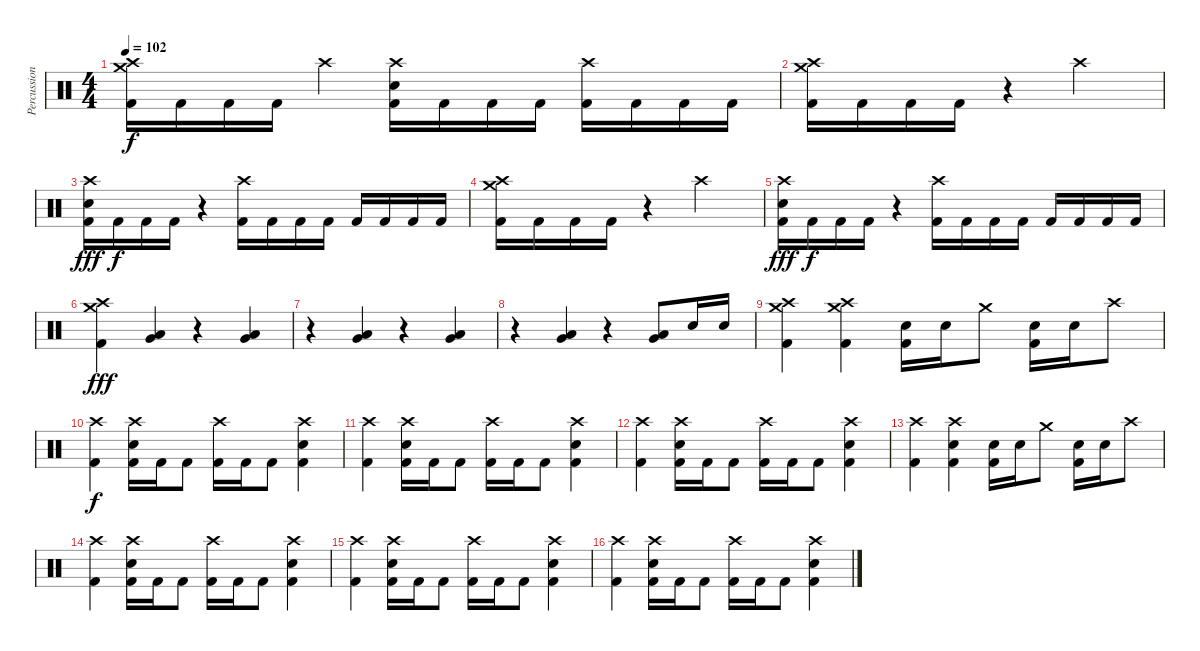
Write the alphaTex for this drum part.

\track ("Percussion" "Percussion") {instrument percussion}
\staff {score}
\articulation defaults
\ts (4 4)
\tempo 102
\clef neutral
\ks c
("Crash high (hit)" "Crash medium (hit)" "Kick (hit) 2").16{dy f} "Kick (hit) 2".16 "Kick (hit) 2".16 "Kick (hit) 2".16 "Crash high (hit)".4 ("Crash high (hit)" "Electric Snare (hit)" "Kick (hit) 2").16 "Kick (hit) 2".16 "Kick (hit) 2".16 "Kick (hit) 2".16 ("Crash high (hit)" "Kick (hit) 2").16 "Kick (hit) 2".16 "Kick (hit) 2".16 "Kick (hit) 2".16 |
("Crash high (hit)" "Crash medium (hit)" "Kick (hit) 2").16 "Kick (hit) 2".16 "Kick (hit) 2".16 "Kick (hit) 2".16 r.4 "Crash high (hit)".2 |
("Crash high (hit)" "Electric Snare (hit)" "Kick (hit) 2").16{dy fff} "Kick (hit) 2".16{dy f} "Kick (hit) 2".16 "Kick (hit) 2".16 r.4 ("Crash high (hit)" "Kick (hit) 2").16 "Kick (hit) 2".16 "Kick (hit) 2".16 "Kick (hit) 2".16 "Kick (hit) 2".16 "Kick (hit) 2".16 "Kick (hit) 2".16 "Kick (hit) 2".16 |
("Crash high (hit)" "Crash medium (hit)" "Kick (hit) 2").16 "Kick (hit) 2".16 "Kick (hit) 2".16 "Kick (hit) 2".16 r.4 "Crash high (hit)".2 |
("Crash high (hit)" "Electric Snare (hit)" "Kick (hit) 2").16{dy fff} "Kick (hit) 2".16{dy f} "Kick (hit) 2".16 "Kick (hit) 2".16 r.4 ("Crash high (hit)" "Kick (hit) 2").16 "Kick (hit) 2".16 "Kick (hit) 2".16 "Kick (hit) 2".16 "Kick (hit) 2".16 "Kick (hit) 2".16 "Kick (hit) 2".16 "Kick (hit) 2".16 |
("Crash medium (hit)" "Crash high (hit)" "Kick (hit) 2").4{dy fff} ("Low Tom (hit)" "Very Low Tom (hit)").4 r.4 ("Low Tom (hit)" "Very Low Tom (hit)").4 |
r.4 ("Low Tom (hit)" "Very Low Tom (hit)").4 r.4 ("Low Tom (hit)" "Very Low Tom (hit)").4 |
r.4 ("Low Tom (hit)" "Very Low Tom (hit)").4 r.4 ("Low Tom (hit)" "Very Low Tom (hit)").8 "Electric Snare (hit)".16 "Electric Snare (hit)".16 |
("Crash medium (hit)" "Crash high (hit)" "Kick (hit) 2").4 ("Crash medium (hit)" "Crash high (hit)" "Kick (hit) 2").4 ("Electric Snare (hit)" "Kick (hit) 2").16 "Electric Snare (hit)".16 "Crash medium (hit)".8 ("Electric Snare (hit)" "Kick (hit) 2").16 "Electric Snare (hit)".16 "Crash high (hit)".8 |
("Crash high (hit)" "Kick (hit) 2").4{dy f} ("Crash high (hit)" "Electric Snare (hit)" "Kick (hit) 2").16 "Kick (hit) 2".16 "Kick (hit) 2".8 ("Crash high (hit)" "Kick (hit) 2").16 "Kick (hit) 2".16 "Kick (hit) 2".8 ("Crash high (hit)" "Electric Snare (hit)" "Kick (hit) 2").4 |
("Crash high (hit)" "Kick (hit) 2").4 ("Crash high (hit)" "Electric Snare (hit)" "Kick (hit) 2").16 "Kick (hit) 2".16 "Kick (hit) 2".8 ("Crash high (hit)" "Kick (hit) 2").16 "Kick (hit) 2".16 "Kick (hit) 2".8 ("Crash high (hit)" "Electric Snare (hit)" "Kick (hit) 2").4 |
("Crash high (hit)" "Kick (hit) 2").4 ("Crash high (hit)" "Electric Snare (hit)" "Kick (hit) 2").16 "Kick (hit) 2".16 "Kick (hit) 2".8 ("Crash high (hit)" "Kick (hit) 2").16 "Kick (hit) 2".16 "Kick (hit) 2".8 ("Crash high (hit)" "Electric Snare (hit)" "Kick (hit) 2").4 |
("Crash high (hit)" "Kick (hit) 2").4 ("Crash high (hit)" "Electric Snare (hit)" "Kick (hit) 2").4 ("Electric Snare (hit)" "Kick (hit) 2").16 "Electric Snare (hit)".16 "Crash medium (hit)".8 ("Electric Snare (hit)" "Kick (hit) 2").16 "Electric Snare (hit)".16 "Crash high (hit)".8 |
("Crash high (hit)" "Kick (hit) 2").4 ("Crash high (hit)" "Electric Snare (hit)" "Kick (hit) 2").16 "Kick (hit) 2".16 "Kick (hit) 2".8 ("Crash high (hit)" "Kick (hit) 2").16 "Kick (hit) 2".16 "Kick (hit) 2".8 ("Crash high (hit)" "Electric Snare (hit)" "Kick (hit) 2").4 |
("Crash high (hit)" "Kick (hit) 2").4 ("Crash high (hit)" "Electric Snare (hit)" "Kick (hit) 2").16 "Kick (hit) 2".16 "Kick (hit) 2".8 ("Crash high (hit)" "Kick (hit) 2").16 "Kick (hit) 2".16 "Kick (hit) 2".8 ("Crash high (hit)" "Electric Snare (hit)" "Kick (hit) 2").4 |
("Crash high (hit)" "Kick (hit) 2").4 ("Crash high (hit)" "Electric Snare (hit)" "Kick (hit) 2").16 "Kick (hit) 2".16 "Kick (hit) 2".8 ("Crash high (hit)" "Kick (hit) 2").16 "Kick (hit) 2".16 "Kick (hit) 2".8 ("Crash high (hit)" "Electric Snare (hit)" "Kick (hit) 2").4
